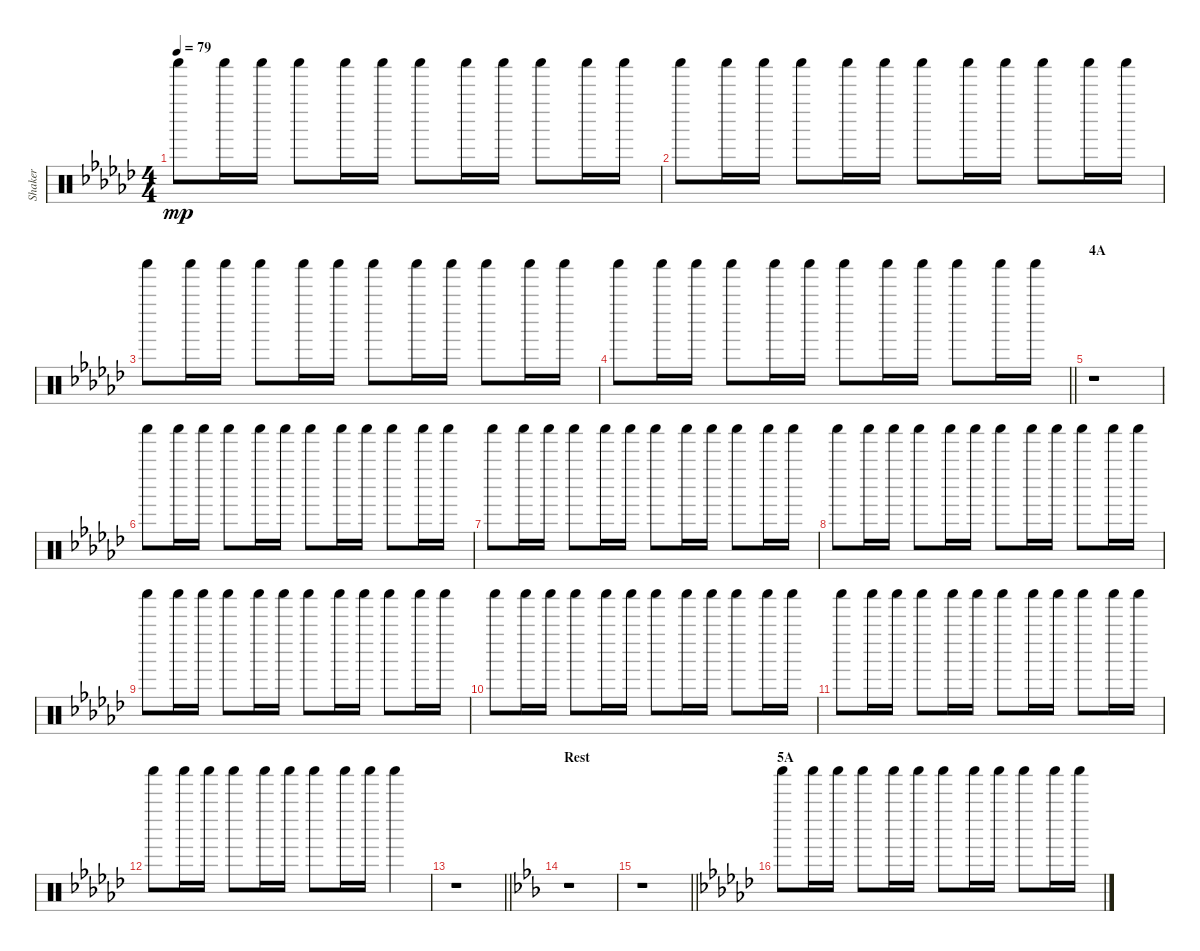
\track ("Shaker" "Shaker") {instrument percussion}
\staff {score}
\articulation defaults
\ts (4 4)
\tempo 79
\clef neutral
\ks gb "Shaker (hit)".8{dy mp} "Shaker (hit)".16 "Shaker (hit)".16 "Shaker (hit)".8 "Shaker (hit)".16 "Shaker (hit)".16 "Shaker (hit)".8 "Shaker (hit)".16 "Shaker (hit)".16 "Shaker (hit)".8 "Shaker (hit)".16 "Shaker (hit)".16
|
"Shaker (hit)".8 "Shaker (hit)".16 "Shaker (hit)".16 "Shaker (hit)".8 "Shaker (hit)".16 "Shaker (hit)".16 "Shaker (hit)".8 "Shaker (hit)".16 "Shaker (hit)".16 "Shaker (hit)".8 "Shaker (hit)".16 "Shaker (hit)".16 |
"Shaker (hit)".8 "Shaker (hit)".16 "Shaker (hit)".16 "Shaker (hit)".8 "Shaker (hit)".16 "Shaker (hit)".16 "Shaker (hit)".8 "Shaker (hit)".16 "Shaker (hit)".16 "Shaker (hit)".8 "Shaker (hit)".16 "Shaker (hit)".16 |
\barLineRight lightlight "Shaker (hit)".8 "Shaker (hit)".16 "Shaker (hit)".16 "Shaker (hit)".8 "Shaker (hit)".16 "Shaker (hit)".16 "Shaker (hit)".8 "Shaker (hit)".16 "Shaker (hit)".16 "Shaker (hit)".8 "Shaker (hit)".16 "Shaker (hit)".16
|
\section ("" "4A")
r.1 |
"Shaker (hit)".8 "Shaker (hit)".16 "Shaker (hit)".16 "Shaker (hit)".8 "Shaker (hit)".16 "Shaker (hit)".16 "Shaker (hit)".8 "Shaker (hit)".16 "Shaker (hit)".16 "Shaker (hit)".8 "Shaker (hit)".16 "Shaker (hit)".16 |
"Shaker (hit)".8 "Shaker (hit)".16 "Shaker (hit)".16 "Shaker (hit)".8 "Shaker (hit)".16 "Shaker (hit)".16 "Shaker (hit)".8 "Shaker (hit)".16 "Shaker (hit)".16 "Shaker (hit)".8 "Shaker (hit)".16 "Shaker (hit)".16 |
"Shaker (hit)".8 "Shaker (hit)".16 "Shaker (hit)".16 "Shaker (hit)".8 "Shaker (hit)".16 "Shaker (hit)".16 "Shaker (hit)".8 "Shaker (hit)".16 "Shaker (hit)".16 "Shaker (hit)".8 "Shaker (hit)".16 "Shaker (hit)".16 |
"Shaker (hit)".8 "Shaker (hit)".16 "Shaker (hit)".16 "Shaker (hit)".8 "Shaker (hit)".16 "Shaker (hit)".16 "Shaker (hit)".8 "Shaker (hit)".16 "Shaker (hit)".16 "Shaker (hit)".8 "Shaker (hit)".16 "Shaker (hit)".16 |
"Shaker (hit)".8 "Shaker (hit)".16 "Shaker (hit)".16 "Shaker (hit)".8 "Shaker (hit)".16 "Shaker (hit)".16 "Shaker (hit)".8 "Shaker (hit)".16 "Shaker (hit)".16 "Shaker (hit)".8 "Shaker (hit)".16 "Shaker (hit)".16 |
"Shaker (hit)".8 "Shaker (hit)".16 "Shaker (hit)".16 "Shaker (hit)".8 "Shaker (hit)".16 "Shaker (hit)".16 "Shaker (hit)".8 "Shaker (hit)".16 "Shaker (hit)".16 "Shaker (hit)".8 "Shaker (hit)".16 "Shaker (hit)".16 |
"Shaker (hit)".8 "Shaker (hit)".16 "Shaker (hit)".16 "Shaker (hit)".8 "Shaker (hit)".16 "Shaker (hit)".16 "Shaker (hit)".8 "Shaker (hit)".16 "Shaker (hit)".16 "Shaker (hit)".4 |
\barLineRight lightlight
r.1 |
\section ("" "Rest")
\ks eb
r.1 |
\barLineRight lightlight
r.1 |
\section ("" "5A")
\ks gb "Shaker (hit)".8 "Shaker (hit)".16 "Shaker (hit)".16 "Shaker (hit)".8 "Shaker (hit)".16 "Shaker (hit)".16 "Shaker (hit)".8 "Shaker (hit)".16 "Shaker (hit)".16 "Shaker (hit)".8 "Shaker (hit)".16 "Shaker (hit)".16
